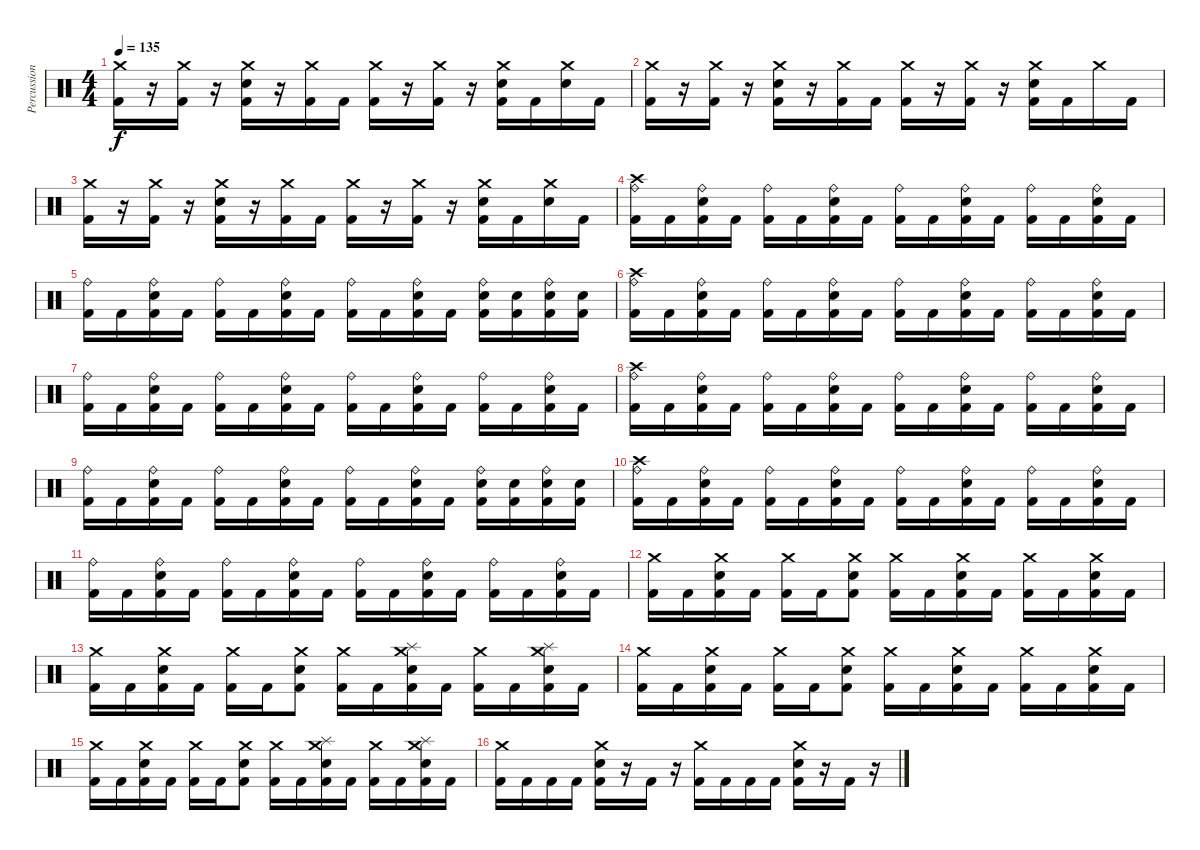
\track ("Percussion" "Percussion") {instrument percussion}
\staff {score}
\articulation defaults
\ts (4 4)
\tempo 135
\clef neutral
\ks c
("Crash medium (hit)" "Kick (hit) 2").16{dy f} r.16 ("Crash medium (hit)" "Kick (hit) 2").16 r.16 ("Crash medium (hit)" "Electric Snare (hit)" "Kick (hit) 2").16 r.16 ("Crash medium (hit)" "Kick (hit) 2").16 "Kick (hit) 2".16 ("Crash medium (hit)" "Kick (hit) 2").16 r.16 ("Crash medium (hit)" "Kick (hit) 2").16 r.16 ("Crash medium (hit)" "Electric Snare (hit)" "Kick (hit) 2").16 "Kick (hit) 2".16 ("Crash medium (hit)" "Electric Snare (hit)").16 "Kick (hit) 2".16 |
("Crash medium (hit)" "Kick (hit) 2").16 r.16 ("Crash medium (hit)" "Kick (hit) 2").16 r.16 ("Crash medium (hit)" "Electric Snare (hit)" "Kick (hit) 2").16 r.16 ("Crash medium (hit)" "Kick (hit) 2").16 "Kick (hit) 2".16 ("Crash medium (hit)" "Kick (hit) 2").16 r.16 ("Crash medium (hit)" "Kick (hit) 2").16 r.16 ("Crash medium (hit)" "Electric Snare (hit)" "Kick (hit) 2").16 "Kick (hit) 2".16 "Crash medium (hit)".16 "Kick (hit) 2".16 |
("Crash medium (hit)" "Kick (hit) 2").16 r.16 ("Crash medium (hit)" "Kick (hit) 2").16 r.16 ("Crash medium (hit)" "Electric Snare (hit)" "Kick (hit) 2").16 r.16 ("Crash medium (hit)" "Kick (hit) 2").16 "Kick (hit) 2".16 ("Crash medium (hit)" "Kick (hit) 2").16 r.16 ("Crash medium (hit)" "Kick (hit) 2").16 r.16 ("Crash medium (hit)" "Electric Snare (hit)" "Kick (hit) 2").16 "Kick (hit) 2".16 ("Crash medium (hit)" "Electric Snare (hit)").16 "Kick (hit) 2".16 |
("Ride (bell)" "Crash high (hit)" "Kick (hit) 2").16 "Kick (hit) 2".16 ("Ride (bell)" "Electric Snare (hit)" "Kick (hit) 2").16 "Kick (hit) 2".16 ("Ride (bell)" "Kick (hit) 2").16 "Kick (hit) 2".16 ("Ride (bell)" "Electric Snare (hit)" "Kick (hit) 2").16 "Kick (hit) 2".16 ("Ride (bell)" "Kick (hit) 2").16 "Kick (hit) 2".16 ("Ride (bell)" "Electric Snare (hit)" "Kick (hit) 2").16 "Kick (hit) 2".16 ("Ride (bell)" "Kick (hit) 2").16 "Kick (hit) 2".16 ("Ride (bell)" "Electric Snare (hit)" "Kick (hit) 2").16 "Kick (hit) 2".16 |
("Ride (bell)" "Kick (hit) 2").16 "Kick (hit) 2".16 ("Ride (bell)" "Electric Snare (hit)" "Kick (hit) 2").16 "Kick (hit) 2".16 ("Ride (bell)" "Kick (hit) 2").16 "Kick (hit) 2".16 ("Ride (bell)" "Electric Snare (hit)" "Kick (hit) 2").16 "Kick (hit) 2".16 ("Ride (bell)" "Kick (hit) 2").16 "Kick (hit) 2".16 ("Ride (bell)" "Electric Snare (hit)" "Kick (hit) 2").16 "Kick (hit) 2".16 ("Ride (bell)" "Electric Snare (hit)" "Kick (hit) 2").16 ("Electric Snare (hit)" "Kick (hit) 2").16 ("Ride (bell)" "Electric Snare (hit)" "Kick (hit) 2").16 ("Electric Snare (hit)" "Kick (hit) 2").16 |
("Ride (bell)" "Crash high (hit)" "Kick (hit) 2").16 "Kick (hit) 2".16 ("Ride (bell)" "Electric Snare (hit)" "Kick (hit) 2").16 "Kick (hit) 2".16 ("Ride (bell)" "Kick (hit) 2").16 "Kick (hit) 2".16 ("Ride (bell)" "Electric Snare (hit)" "Kick (hit) 2").16 "Kick (hit) 2".16 ("Ride (bell)" "Kick (hit) 2").16 "Kick (hit) 2".16 ("Ride (bell)" "Electric Snare (hit)" "Kick (hit) 2").16 "Kick (hit) 2".16 ("Ride (bell)" "Kick (hit) 2").16 "Kick (hit) 2".16 ("Ride (bell)" "Electric Snare (hit)" "Kick (hit) 2").16 "Kick (hit) 2".16 |
("Ride (bell)" "Kick (hit) 2").16 "Kick (hit) 2".16 ("Ride (bell)" "Electric Snare (hit)" "Kick (hit) 2").16 "Kick (hit) 2".16 ("Ride (bell)" "Kick (hit) 2").16 "Kick (hit) 2".16 ("Ride (bell)" "Electric Snare (hit)" "Kick (hit) 2").16 "Kick (hit) 2".16 ("Ride (bell)" "Kick (hit) 2").16 "Kick (hit) 2".16 ("Ride (bell)" "Electric Snare (hit)" "Kick (hit) 2").16 "Kick (hit) 2".16 ("Ride (bell)" "Kick (hit) 2").16 "Kick (hit) 2".16 ("Ride (bell)" "Electric Snare (hit)" "Kick (hit) 2").16 "Kick (hit) 2".16 |
("Ride (bell)" "Crash high (hit)" "Kick (hit) 2").16 "Kick (hit) 2".16 ("Ride (bell)" "Electric Snare (hit)" "Kick (hit) 2").16 "Kick (hit) 2".16 ("Ride (bell)" "Kick (hit) 2").16 "Kick (hit) 2".16 ("Ride (bell)" "Electric Snare (hit)" "Kick (hit) 2").16 "Kick (hit) 2".16 ("Ride (bell)" "Kick (hit) 2").16 "Kick (hit) 2".16 ("Ride (bell)" "Electric Snare (hit)" "Kick (hit) 2").16 "Kick (hit) 2".16 ("Ride (bell)" "Kick (hit) 2").16 "Kick (hit) 2".16 ("Ride (bell)" "Electric Snare (hit)" "Kick (hit) 2").16 "Kick (hit) 2".16 |
("Ride (bell)" "Kick (hit) 2").16 "Kick (hit) 2".16 ("Ride (bell)" "Electric Snare (hit)" "Kick (hit) 2").16 "Kick (hit) 2".16 ("Ride (bell)" "Kick (hit) 2").16 "Kick (hit) 2".16 ("Ride (bell)" "Electric Snare (hit)" "Kick (hit) 2").16 "Kick (hit) 2".16 ("Ride (bell)" "Kick (hit) 2").16 "Kick (hit) 2".16 ("Ride (bell)" "Electric Snare (hit)" "Kick (hit) 2").16 "Kick (hit) 2".16 ("Ride (bell)" "Electric Snare (hit)" "Kick (hit) 2").16 ("Electric Snare (hit)" "Kick (hit) 2").16 ("Ride (bell)" "Electric Snare (hit)" "Kick (hit) 2").16 ("Electric Snare (hit)" "Kick (hit) 2").16 |
("Ride (bell)" "Crash high (hit)" "Kick (hit) 2").16 "Kick (hit) 2".16 ("Ride (bell)" "Electric Snare (hit)" "Kick (hit) 2").16 "Kick (hit) 2".16 ("Ride (bell)" "Kick (hit) 2").16 "Kick (hit) 2".16 ("Ride (bell)" "Electric Snare (hit)" "Kick (hit) 2").16 "Kick (hit) 2".16 ("Ride (bell)" "Kick (hit) 2").16 "Kick (hit) 2".16 ("Ride (bell)" "Electric Snare (hit)" "Kick (hit) 2").16 "Kick (hit) 2".16 ("Ride (bell)" "Kick (hit) 2").16 "Kick (hit) 2".16 ("Ride (bell)" "Electric Snare (hit)" "Kick (hit) 2").16 "Kick (hit) 2".16 |
("Ride (bell)" "Kick (hit) 2").16 "Kick (hit) 2".16 ("Ride (bell)" "Electric Snare (hit)" "Kick (hit) 2").16 "Kick (hit) 2".16 ("Ride (bell)" "Kick (hit) 2").16 "Kick (hit) 2".16 ("Ride (bell)" "Electric Snare (hit)" "Kick (hit) 2").16 "Kick (hit) 2".16 ("Ride (bell)" "Kick (hit) 2").16 "Kick (hit) 2".16 ("Ride (bell)" "Electric Snare (hit)" "Kick (hit) 2").16 "Kick (hit) 2".16 ("Ride (bell)" "Kick (hit) 2").16 "Kick (hit) 2".16 ("Ride (bell)" "Electric Snare (hit)" "Kick (hit) 2").16 "Kick (hit) 2".16 |
("Crash medium (hit)" "Kick (hit) 2").16 "Kick (hit) 2".16 ("Crash medium (hit)" "Electric Snare (hit)" "Kick (hit) 2").16 "Kick (hit) 2".16 ("Crash medium (hit)" "Kick (hit) 2").16 "Kick (hit) 2".16 ("Crash medium (hit)" "Electric Snare (hit)" "Kick (hit) 2").8 ("Crash medium (hit)" "Kick (hit) 2").16 "Kick (hit) 2".16 ("Crash medium (hit)" "Electric Snare (hit)" "Kick (hit) 2").16 "Kick (hit) 2".16 ("Crash medium (hit)" "Kick (hit) 2").16 "Kick (hit) 2".16 ("Crash medium (hit)" "Electric Snare (hit)" "Kick (hit) 2").16 "Kick (hit) 2".16 |
("Crash medium (hit)" "Kick (hit) 2").16 "Kick (hit) 2".16 ("Crash medium (hit)" "Electric Snare (hit)" "Kick (hit) 2").16 "Kick (hit) 2".16 ("Crash medium (hit)" "Kick (hit) 2").16 "Kick (hit) 2".16 ("Crash medium (hit)" "Electric Snare (hit)" "Kick (hit) 2").8 ("Crash medium (hit)" "Kick (hit) 2").16 "Kick (hit) 2".16 ("Crash medium (hit)" "Splash (hit)" "Electric Snare (hit)" "Kick (hit) 2").16 "Kick (hit) 2".16 ("Crash medium (hit)" "Kick (hit) 2").16 "Kick (hit) 2".16 ("Crash medium (hit)" "Splash (hit)" "Electric Snare (hit)" "Kick (hit) 2").16 "Kick (hit) 2".16 |
("Crash medium (hit)" "Kick (hit) 2").16 "Kick (hit) 2".16 ("Crash medium (hit)" "Electric Snare (hit)" "Kick (hit) 2").16 "Kick (hit) 2".16 ("Crash medium (hit)" "Kick (hit) 2").16 "Kick (hit) 2".16 ("Crash medium (hit)" "Electric Snare (hit)" "Kick (hit) 2").8 ("Crash medium (hit)" "Kick (hit) 2").16 "Kick (hit) 2".16 ("Crash medium (hit)" "Electric Snare (hit)" "Kick (hit) 2").16 "Kick (hit) 2".16 ("Crash medium (hit)" "Kick (hit) 2").16 "Kick (hit) 2".16 ("Crash medium (hit)" "Electric Snare (hit)" "Kick (hit) 2").16 "Kick (hit) 2".16 |
("Crash medium (hit)" "Kick (hit) 2").16 "Kick (hit) 2".16 ("Crash medium (hit)" "Electric Snare (hit)" "Kick (hit) 2").16 "Kick (hit) 2".16 ("Crash medium (hit)" "Kick (hit) 2").16 "Kick (hit) 2".16 ("Crash medium (hit)" "Electric Snare (hit)" "Kick (hit) 2").8 ("Crash medium (hit)" "Kick (hit) 2").16 "Kick (hit) 2".16 ("Crash medium (hit)" "Splash (hit)" "Electric Snare (hit)" "Kick (hit) 2").16 "Kick (hit) 2".16 ("Crash medium (hit)" "Kick (hit) 2").16 "Kick (hit) 2".16 ("Crash medium (hit)" "Splash (hit)" "Electric Snare (hit)" "Kick (hit) 2").16 "Kick (hit) 2".16 |
("Crash medium (hit)" "Kick (hit) 2").16 "Kick (hit) 2".16 "Kick (hit) 2".16 "Kick (hit) 2".16 ("Crash medium (hit)" "Electric Snare (hit)" "Kick (hit) 2").16 r.16 "Kick (hit) 2".16 r.16 ("Crash medium (hit)" "Kick (hit) 2").16 "Kick (hit) 2".16 "Kick (hit) 2".16 "Kick (hit) 2".16 ("Crash medium (hit)" "Electric Snare (hit)" "Kick (hit) 2").16 r.16 "Kick (hit) 2".16 r.16
